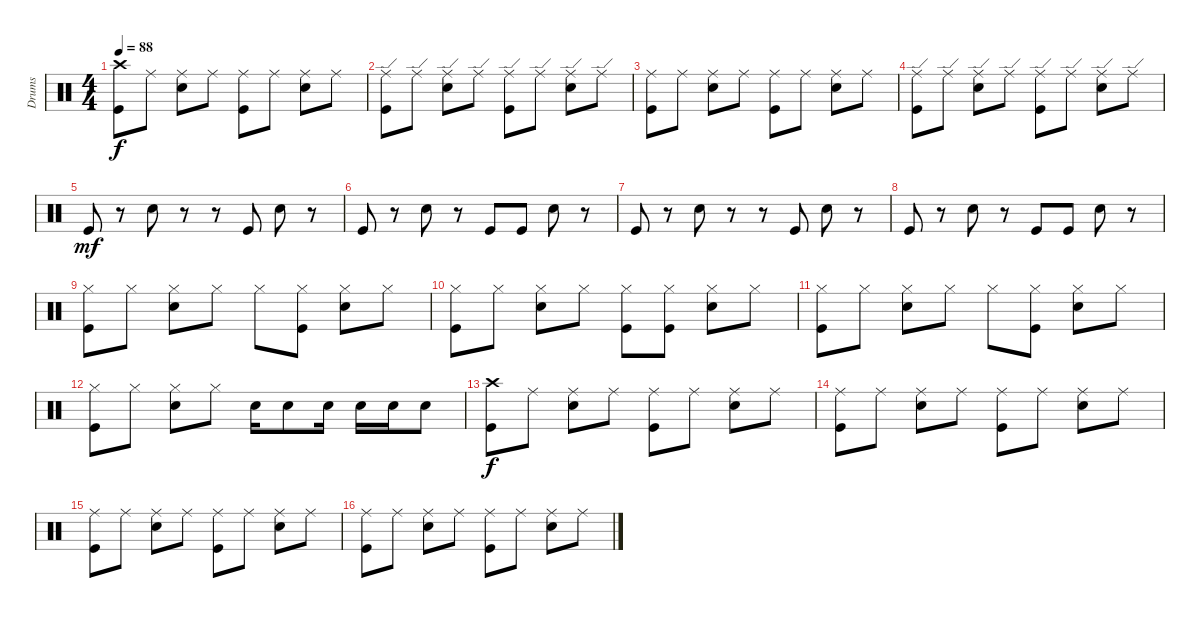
\defaultSystemsLayout 4
\bracketExtendMode groupsimilarinstruments
\multiTrackTrackNamePolicy hidden
\otherSystemsTrackNameOrientation horizontal
\track ("Drumkit" "Drums") {instrument percussion}
\staff {score}
\articulation defaults
\ts (4 4)
\tempo 88
\clef neutral
\ks c
("Kick (hit)" "Crash high (hit)").8{dy f} "Ride (middle)".8 ("Snare (hit) 2" "Ride (middle)").8 "Ride (middle)".8 ("Kick (hit)" "Ride (middle)").8 "Ride (middle)".8 ("Snare (hit) 2" "Ride (middle)").8 "Ride (middle)".8 |
("Kick (hit)" "Ride (edge)").8 "Ride (edge)".8 ("Snare (hit) 2" "Ride (edge)").8 "Ride (edge)".8 ("Kick (hit)" "Ride (edge)").8 "Ride (edge)".8 ("Snare (hit) 2" "Ride (edge)").8 "Ride (edge)".8 |
("Kick (hit)" "Ride (middle)").8 "Ride (middle)".8 ("Snare (hit) 2" "Ride (middle)").8 "Ride (middle)".8 ("Kick (hit)" "Ride (middle)").8 "Ride (middle)".8 ("Snare (hit) 2" "Ride (middle)").8 "Ride (middle)".8 |
("Kick (hit)" "Ride (edge)").8 "Ride (edge)".8 ("Snare (hit) 2" "Ride (edge)").8 "Ride (edge)".8 ("Kick (hit)" "Ride (edge)").8 "Ride (edge)".8 ("Snare (hit) 2" "Ride (edge)").8 "Ride (edge)".8 |
"Kick (hit)".8{dy mf} r.8 "Snare (hit) 2".8 r.8 r.8 "Kick (hit)".8 "Snare (hit) 2".8 r.8 |
"Kick (hit)".8 r.8 "Snare (hit) 2".8 r.8 "Kick (hit)".8 "Kick (hit)".8 "Snare (hit) 2".8 r.8 |
"Kick (hit)".8 r.8 "Snare (hit) 2".8 r.8 r.8 "Kick (hit)".8 "Snare (hit) 2".8 r.8 |
"Kick (hit)".8 r.8 "Snare (hit) 2".8 r.8 "Kick (hit)".8 "Kick (hit)".8 "Snare (hit) 2".8 r.8 |
("Kick (hit)" "Hi-Hat (closed)").8 "Hi-Hat (closed)".8 ("Snare (hit) 2" "Hi-Hat (closed)").8 "Hi-Hat (closed)".8 "Hi-Hat (closed)".8 ("Hi-Hat (closed)" "Kick (hit)").8 ("Hi-Hat (closed)" "Snare (hit) 2").8 "Hi-Hat (closed)".8 |
("Kick (hit)" "Hi-Hat (closed)").8 "Hi-Hat (closed)".8 ("Snare (hit) 2" "Hi-Hat (closed)").8 "Hi-Hat (closed)".8 ("Hi-Hat (closed)" "Kick (hit)").8 ("Hi-Hat (closed)" "Kick (hit)").8 ("Hi-Hat (closed)" "Snare (hit) 2").8 "Hi-Hat (closed)".8 |
("Kick (hit)" "Hi-Hat (closed)").8 "Hi-Hat (closed)".8 ("Snare (hit) 2" "Hi-Hat (closed)").8 "Hi-Hat (closed)".8 "Hi-Hat (closed)".8 ("Hi-Hat (closed)" "Kick (hit)").8 ("Hi-Hat (closed)" "Snare (hit) 2").8 "Hi-Hat (closed)".8 |
("Kick (hit)" "Hi-Hat (closed)").8 "Hi-Hat (closed)".8 ("Snare (hit) 2" "Hi-Hat (closed)").8 "Hi-Hat (closed)".8 "Snare (hit) 2".16 "Snare (hit) 2".8 "Snare (hit) 2".16 "Snare (hit) 2".16 "Snare (hit) 2".16 "Snare (hit) 2".8 |
("Kick (hit)" "Crash high (hit)").8{dy f} "Ride (middle)".8 ("Snare (hit) 2" "Ride (middle)").8 "Ride (middle)".8 ("Kick (hit)" "Ride (middle)").8 "Ride (middle)".8 ("Snare (hit) 2" "Ride (middle)").8 "Ride (middle)".8 |
("Kick (hit)" "Ride (middle)").8 "Ride (middle)".8 ("Snare (hit) 2" "Ride (middle)").8 "Ride (middle)".8 ("Kick (hit)" "Ride (middle)").8 "Ride (middle)".8 ("Snare (hit) 2" "Ride (middle)").8 "Ride (middle)".8 |
("Kick (hit)" "Ride (middle)").8 "Ride (middle)".8 ("Snare (hit) 2" "Ride (middle)").8 "Ride (middle)".8 ("Kick (hit)" "Ride (middle)").8 "Ride (middle)".8 ("Snare (hit) 2" "Ride (middle)").8 "Ride (middle)".8 |
("Kick (hit)" "Ride (middle)").8 "Ride (middle)".8 ("Snare (hit) 2" "Ride (middle)").8 "Ride (middle)".8 ("Kick (hit)" "Ride (middle)").8 "Ride (middle)".8 ("Snare (hit) 2" "Ride (middle)").8 "Ride (middle)".8
